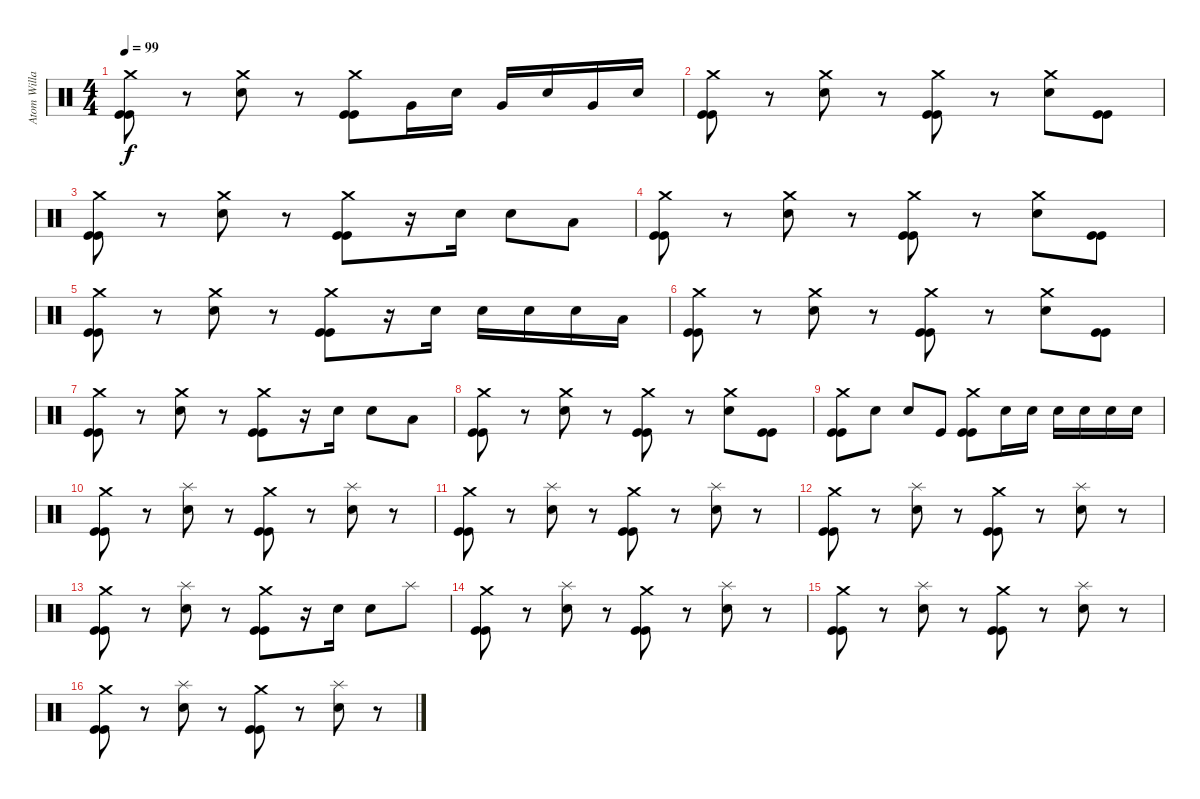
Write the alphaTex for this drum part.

\track ("Atom Willard" "Atom Willa") {instrument percussion}
\staff {score}
\articulation defaults
\ts (4 4)
\tempo 99
\clef neutral
\ks c
("Crash medium (hit)" "Kick (hit)" "Kick (hit)").8{dy f} r.8 ("Crash medium (hit)" "Electric Snare (hit)").8 r.8 ("Crash medium (hit)" "Kick (hit)" "Kick (hit)").8 "Very Low Tom (hit)".16 "Electric Snare (hit)".16 "Very Low Tom (hit)".16 "Electric Snare (hit)".16 "Very Low Tom (hit)".16 "Electric Snare (hit)".16 |
("Crash medium (hit)" "Kick (hit)" "Kick (hit)").8 r.8 ("Crash medium (hit)" "Electric Snare (hit)").8 r.8 ("Crash medium (hit)" "Kick (hit)" "Kick (hit)").8 r.8 ("Crash medium (hit)" "Electric Snare (hit)").8 ("Kick (hit)" "Kick (hit)").8 |
("Crash medium (hit)" "Kick (hit)" "Kick (hit)").8 r.8 ("Crash medium (hit)" "Electric Snare (hit)").8 r.8 ("Crash medium (hit)" "Kick (hit)" "Kick (hit)").8 r.16 "Electric Snare (hit)".16 "Electric Snare (hit)".8 "Low Tom (hit)".8 |
("Crash medium (hit)" "Kick (hit)" "Kick (hit)").8 r.8 ("Crash medium (hit)" "Electric Snare (hit)").8 r.8 ("Crash medium (hit)" "Kick (hit)" "Kick (hit)").8 r.8 ("Crash medium (hit)" "Electric Snare (hit)").8 ("Kick (hit)" "Kick (hit)").8 |
("Crash medium (hit)" "Kick (hit)" "Kick (hit)").8 r.8 ("Crash medium (hit)" "Electric Snare (hit)").8 r.8 ("Crash medium (hit)" "Kick (hit)" "Kick (hit)").8 r.16 "Electric Snare (hit)".16 "Electric Snare (hit)".16 "Electric Snare (hit)".16 "Electric Snare (hit)".16 "Low Floor Tom (hit)".16 |
("Crash medium (hit)" "Kick (hit)" "Kick (hit)").8 r.8 ("Crash medium (hit)" "Electric Snare (hit)").8 r.8 ("Crash medium (hit)" "Kick (hit)" "Kick (hit)").8 r.8 ("Crash medium (hit)" "Electric Snare (hit)").8 ("Kick (hit)" "Kick (hit)").8 |
("Crash medium (hit)" "Kick (hit)" "Kick (hit)").8 r.8 ("Crash medium (hit)" "Electric Snare (hit)").8 r.8 ("Crash medium (hit)" "Kick (hit)" "Kick (hit)").8 r.16 "Electric Snare (hit)".16 "Electric Snare (hit)".8 "Low Tom (hit)".8 |
("Crash medium (hit)" "Kick (hit)" "Kick (hit)").8 r.8 ("Crash medium (hit)" "Electric Snare (hit)").8 r.8 ("Crash medium (hit)" "Kick (hit)" "Kick (hit)").8 r.8 ("Crash medium (hit)" "Electric Snare (hit)").8 ("Kick (hit)" "Kick (hit)").8 |
("Crash medium (hit)" "Kick (hit)" "Kick (hit)").8 "Electric Snare (hit)".8 "Electric Snare (hit)".8 "Kick (hit)".8 ("Crash medium (hit)" "Kick (hit)" "Kick (hit)").8 "Electric Snare (hit)".16 "Electric Snare (hit)".16 "Electric Snare (hit)".16 "Electric Snare (hit)".16 "Electric Snare (hit)".16 "Electric Snare (hit)".16 |
("Crash medium (hit)" "Kick (hit)" "Kick (hit)").8 r.8 ("Splash (hit)" "Electric Snare (hit)").8 r.8 ("Crash medium (hit)" "Kick (hit)" "Kick (hit)").8 r.8 ("Splash (hit)" "Electric Snare (hit)").8 r.8 |
("Crash medium (hit)" "Kick (hit)" "Kick (hit)").8 r.8 ("Splash (hit)" "Electric Snare (hit)").8 r.8 ("Crash medium (hit)" "Kick (hit)" "Kick (hit)").8 r.8 ("Splash (hit)" "Electric Snare (hit)").8 r.8 |
("Crash medium (hit)" "Kick (hit)" "Kick (hit)").8 r.8 ("Splash (hit)" "Electric Snare (hit)").8 r.8 ("Crash medium (hit)" "Kick (hit)" "Kick (hit)").8 r.8 ("Splash (hit)" "Electric Snare (hit)").8 r.8 |
("Crash medium (hit)" "Kick (hit)" "Kick (hit)").8 r.8 ("Splash (hit)" "Electric Snare (hit)").8 r.8 ("Crash medium (hit)" "Kick (hit)" "Kick (hit)").8 r.16 "Electric Snare (hit)".16 "Electric Snare (hit)".8 "Splash (hit)".8 |
("Crash medium (hit)" "Kick (hit)" "Kick (hit)").8 r.8 ("Splash (hit)" "Electric Snare (hit)").8 r.8 ("Crash medium (hit)" "Kick (hit)" "Kick (hit)").8 r.8 ("Splash (hit)" "Electric Snare (hit)").8 r.8 |
("Crash medium (hit)" "Kick (hit)" "Kick (hit)").8 r.8 ("Splash (hit)" "Electric Snare (hit)").8 r.8 ("Crash medium (hit)" "Kick (hit)" "Kick (hit)").8 r.8 ("Splash (hit)" "Electric Snare (hit)").8 r.8 |
("Crash medium (hit)" "Kick (hit)" "Kick (hit)").8 r.8 ("Splash (hit)" "Electric Snare (hit)").8 r.8 ("Crash medium (hit)" "Kick (hit)" "Kick (hit)").8 r.8 ("Splash (hit)" "Electric Snare (hit)").8 r.8
